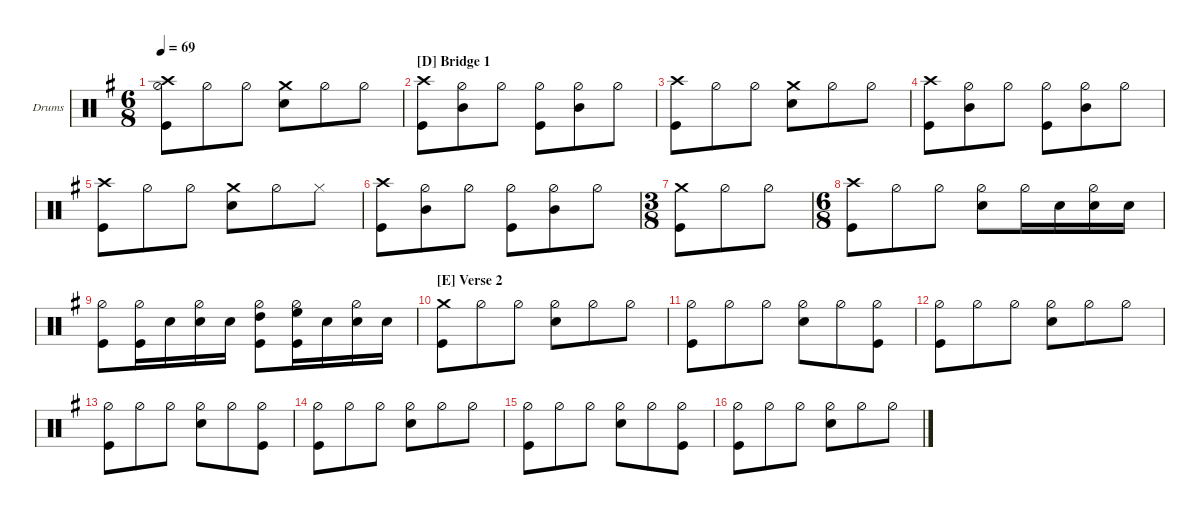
\hideDynamics
\bracketExtendMode groupsimilarinstruments
\firstSystemTrackNameOrientation horizontal
\otherSystemsTrackNameOrientation horizontal
\track ("Drumkit" "Drums") {multiBarRest instrument percussion}
\staff {score}
\articulation defaults
\ts (6 8)
\tempo 69
\clef neutral
\ks g
("Crash high (hit)" "Kick (hit)" "Hi-Hat (half)").8{dy f} "Hi-Hat (half)".8 "Hi-Hat (half)".8 ("Crash medium (hit)" "Snare (hit) 2").8 "Hi-Hat (half)".8 "Hi-Hat (half)".8 |
\section ("D" "Bridge 1")
("Crash high (hit)" "Kick (hit)").8 ("Hi-Hat (half)" "Mid Tom (hit)").8 "Hi-Hat (half)".8 ("Hi-Hat (half)" "Kick (hit)").8 ("Hi-Hat (half)" "Mid Tom (hit)").8 "Hi-Hat (half)".8 |
("Crash high (hit)" "Kick (hit)").8 "Hi-Hat (half)".8 "Hi-Hat (half)".8 ("Crash medium (hit)" "Snare (hit) 2").8 "Hi-Hat (half)".8 "Hi-Hat (half)".8 |
("Crash high (hit)" "Kick (hit)").8 ("Hi-Hat (half)" "Mid Tom (hit)").8 "Hi-Hat (half)".8 ("Hi-Hat (half)" "Kick (hit)").8 ("Hi-Hat (half)" "Mid Tom (hit)").8 "Hi-Hat (half)".8 |
("Crash high (hit)" "Kick (hit)").8 "Hi-Hat (half)".8 "Hi-Hat (half)".8 ("Crash medium (hit)" "Snare (hit) 2").8 "Hi-Hat (half)".8 "Hi-Hat (closed)".8 |
("Crash high (hit)" "Kick (hit)").8 ("Hi-Hat (half)" "Mid Tom (hit)").8 "Hi-Hat (half)".8 ("Hi-Hat (half)" "Kick (hit)").8 ("Hi-Hat (half)" "Mid Tom (hit)").8 "Hi-Hat (half)".8 |
\ts (3 8)
("Crash medium (hit)" "Kick (hit)").8 "Hi-Hat (half)".8 "Hi-Hat (half)".8 |
\ts (6 8)
("Crash high (hit)" "Kick (hit)").8 "Hi-Hat (half)".8 "Hi-Hat (half)".8 ("Hi-Hat (half)" "Snare (hit) 2").8 "Hi-Hat (half)".16 "Snare (hit) 2".16 ("Snare (hit) 2" "Hi-Hat (half)").16 "Snare (hit) 2".16 |
("Hi-Hat (half)" "Kick (hit)").8 ("Hi-Hat (half)" "Kick (hit)").16 "Snare (hit) 2".16 ("Hi-Hat (half)" "Snare (hit) 2").16 "Snare (hit) 2".16 ("Hi-Hat (half)" "High Tom (hit)" "Kick (hit)").8 ("Hi-Hat (half)" "High Floor Tom (hit)" "Kick (hit)").16 "Snare (hit) 2".16 ("Snare (hit) 2" "Hi-Hat (half)").16 "Snare (hit) 2".16 |
\section ("E" "Verse 2")
("Crash medium (hit)" "Kick (hit)").8 "Hi-Hat (half)".8 "Hi-Hat (half)".8 ("Hi-Hat (half)" "Snare (hit) 2").8 "Hi-Hat (half)".8 "Hi-Hat (half)".8 |
("Hi-Hat (half)" "Kick (hit)").8 "Hi-Hat (half)".8 "Hi-Hat (half)".8 ("Hi-Hat (half)" "Snare (hit) 2").8 "Hi-Hat (half)".8 ("Hi-Hat (half)" "Kick (hit)").8 |
("Hi-Hat (half)" "Kick (hit)").8 "Hi-Hat (half)".8 "Hi-Hat (half)".8 ("Hi-Hat (half)" "Snare (hit) 2").8 "Hi-Hat (half)".8 "Hi-Hat (half)".8 |
("Hi-Hat (half)" "Kick (hit)").8 "Hi-Hat (half)".8 "Hi-Hat (half)".8 ("Hi-Hat (half)" "Snare (hit) 2").8 "Hi-Hat (half)".8 ("Hi-Hat (half)" "Kick (hit)").8 |
("Hi-Hat (half)" "Kick (hit)").8 "Hi-Hat (half)".8 "Hi-Hat (half)".8 ("Hi-Hat (half)" "Snare (hit) 2").8 "Hi-Hat (half)".8 "Hi-Hat (half)".8 |
("Hi-Hat (half)" "Kick (hit)").8 "Hi-Hat (half)".8 "Hi-Hat (half)".8 ("Hi-Hat (half)" "Snare (hit) 2").8 "Hi-Hat (half)".8 ("Hi-Hat (half)" "Kick (hit)").8 |
("Hi-Hat (half)" "Kick (hit)").8 "Hi-Hat (half)".8 "Hi-Hat (half)".8 ("Snare (hit) 2" "Hi-Hat (half)").8 "Hi-Hat (half)".8 "Hi-Hat (half)".8
